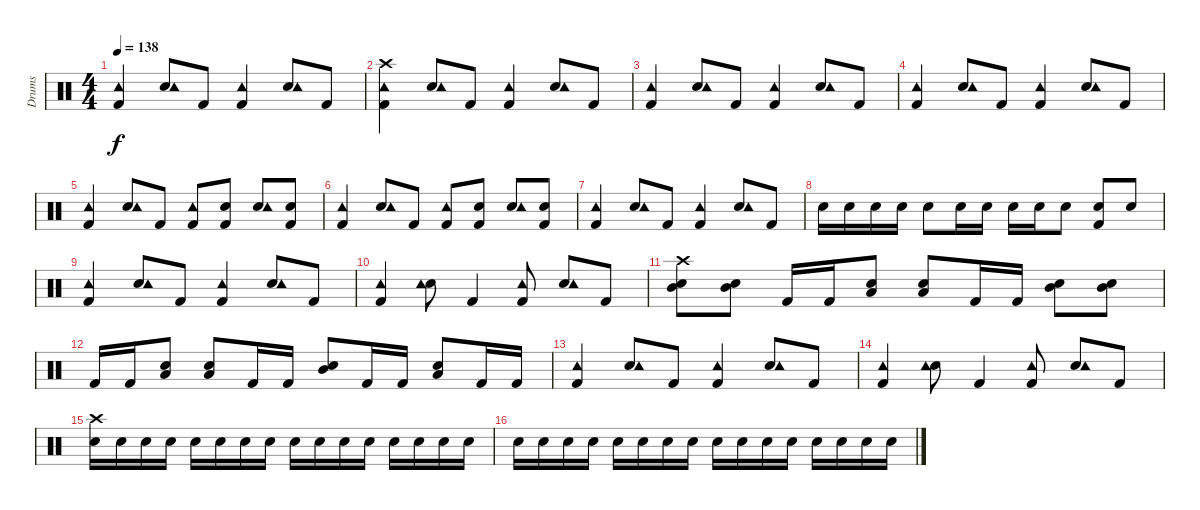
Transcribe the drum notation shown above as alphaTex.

\track ("Drums" "Drums") {instrument percussion}
\staff {score}
\articulation defaults
\ts (4 4)
\tempo 138
\clef neutral
\ks c
("Kick (hit) 2" "Tambourine (hit)").4{dy f} ("Snare (hit) 2" "Tambourine (hit)").8 "Kick (hit) 2".8 ("Kick (hit) 2" "Tambourine (hit)").4 ("Snare (hit) 2" "Tambourine (hit)").8 "Kick (hit) 2".8 |
("Kick (hit) 2" "Tambourine (hit)" "Crash high (hit)").4 ("Snare (hit) 2" "Tambourine (hit)").8 "Kick (hit) 2".8 ("Kick (hit) 2" "Tambourine (hit)").4 ("Snare (hit) 2" "Tambourine (hit)").8 "Kick (hit) 2".8 |
("Kick (hit) 2" "Tambourine (hit)").4 ("Snare (hit) 2" "Tambourine (hit)").8 "Kick (hit) 2".8 ("Kick (hit) 2" "Tambourine (hit)").4 ("Snare (hit) 2" "Tambourine (hit)").8 "Kick (hit) 2".8 |
("Kick (hit) 2" "Tambourine (hit)").4 ("Snare (hit) 2" "Tambourine (hit)").8 "Kick (hit) 2".8 ("Kick (hit) 2" "Tambourine (hit)").4 ("Snare (hit) 2" "Tambourine (hit)").8 "Kick (hit) 2".8 |
("Kick (hit) 2" "Tambourine (hit)").4 ("Snare (hit) 2" "Tambourine (hit)").8 "Kick (hit) 2".8 ("Kick (hit) 2" "Tambourine (hit)").8 ("Snare (hit) 2" "Kick (hit) 2").8 ("Snare (hit) 2" "Tambourine (hit)").8 ("Snare (hit) 2" "Kick (hit) 2").8 |
("Kick (hit) 2" "Tambourine (hit)").4 ("Snare (hit) 2" "Tambourine (hit)").8 "Kick (hit) 2".8 ("Kick (hit) 2" "Tambourine (hit)").8 ("Snare (hit) 2" "Kick (hit) 2").8 ("Snare (hit) 2" "Tambourine (hit)").8 ("Snare (hit) 2" "Kick (hit) 2").8 |
("Kick (hit) 2" "Tambourine (hit)").4 ("Snare (hit) 2" "Tambourine (hit)").8 "Kick (hit) 2".8 ("Kick (hit) 2" "Tambourine (hit)").4 ("Snare (hit) 2" "Tambourine (hit)").8 "Kick (hit) 2".8 |
"Snare (hit) 2".16 "Snare (hit) 2".16 "Snare (hit) 2".16 "Snare (hit) 2".16 "Snare (hit) 2".8 "Snare (hit) 2".16 "Snare (hit) 2".16 "Snare (hit) 2".16 "Snare (hit) 2".16 "Snare (hit) 2".8 ("Snare (hit) 2" "Kick (hit) 2").8 "Snare (hit) 2".8 |
("Kick (hit) 2" "Tambourine (hit)").4 ("Snare (hit) 2" "Tambourine (hit)").8 "Kick (hit) 2".8 ("Kick (hit) 2" "Tambourine (hit)").4 ("Snare (hit) 2" "Tambourine (hit)").8 "Kick (hit) 2".8 |
("Kick (hit) 2" "Tambourine (hit)").4 ("Snare (hit) 2" "Tambourine (hit)").8 "Kick (hit) 2".4 ("Kick (hit) 2" "Tambourine (hit)").8 ("Snare (hit) 2" "Tambourine (hit)").8 "Kick (hit) 2".8 |
("Snare (hit) 2" "Mid Tom (hit)" "Crash high (hit)").8 ("Snare (hit) 2" "Mid Tom (hit)").8 "Kick (hit) 2".16 "Kick (hit) 2".16 ("Snare (hit) 2" "Low Tom (hit)").8 ("Snare (hit) 2" "Low Tom (hit)").8 "Kick (hit) 2".16 "Kick (hit) 2".16 ("Mid Tom (hit)" "Snare (hit) 2").8 ("Mid Tom (hit)" "Snare (hit) 2").8 |
"Kick (hit) 2".16 "Kick (hit) 2".16 ("Snare (hit) 2" "Low Tom (hit)").8 ("Snare (hit) 2" "Low Tom (hit)").8 "Kick (hit) 2".16 "Kick (hit) 2".16 ("Mid Tom (hit)" "Snare (hit) 2").8 "Kick (hit) 2".16 "Kick (hit) 2".16 ("Low Tom (hit)" "Snare (hit) 2").8 "Kick (hit) 2".16 "Kick (hit) 2".16 |
("Kick (hit) 2" "Tambourine (hit)").4 ("Snare (hit) 2" "Tambourine (hit)").8 "Kick (hit) 2".8 ("Kick (hit) 2" "Tambourine (hit)").4 ("Snare (hit) 2" "Tambourine (hit)").8 "Kick (hit) 2".8 |
("Kick (hit) 2" "Tambourine (hit)").4 ("Snare (hit) 2" "Tambourine (hit)").8 "Kick (hit) 2".4 ("Kick (hit) 2" "Tambourine (hit)").8 ("Snare (hit) 2" "Tambourine (hit)").8 "Kick (hit) 2".8 |
("Snare (hit) 2" "Crash high (hit)").16 "Snare (hit) 2".16 "Snare (hit) 2".16 "Snare (hit) 2".16 "Snare (hit) 2".16 "Snare (hit) 2".16 "Snare (hit) 2".16 "Snare (hit) 2".16 "Snare (hit) 2".16 "Snare (hit) 2".16 "Snare (hit) 2".16 "Snare (hit) 2".16 "Snare (hit) 2".16 "Snare (hit) 2".16 "Snare (hit) 2".16 "Snare (hit) 2".16 |
"Snare (hit) 2".16 "Snare (hit) 2".16 "Snare (hit) 2".16 "Snare (hit) 2".16 "Snare (hit) 2".16 "Snare (hit) 2".16 "Snare (hit) 2".16 "Snare (hit) 2".16 "Snare (hit) 2".16 "Snare (hit) 2".16 "Snare (hit) 2".16 "Snare (hit) 2".16 "Snare (hit) 2".16 "Snare (hit) 2".16 "Snare (hit) 2".16 "Snare (hit) 2".16
